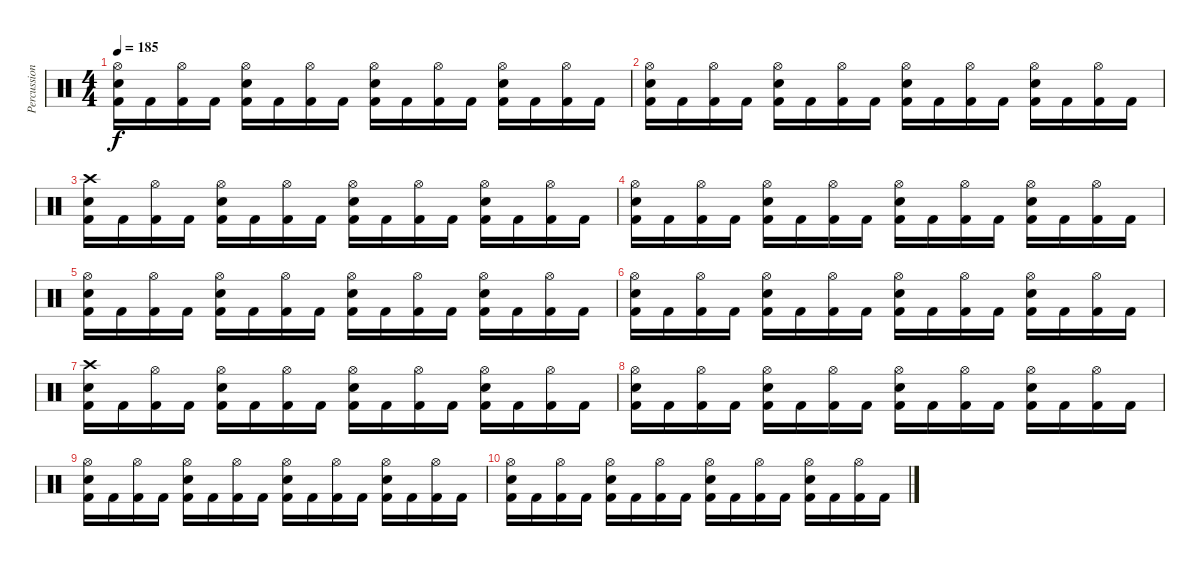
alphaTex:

\track ("Percussion" "Percussion") {instrument percussion}
\staff {score}
\articulation defaults
\ts (4 4)
\tempo 185
\clef neutral
\ks c
("Hi-Hat (open)" "Electric Snare (hit)" "Kick (hit) 2").16{dy f} "Kick (hit) 2".16 ("Hi-Hat (open)" "Kick (hit) 2").16 "Kick (hit) 2".16 ("Hi-Hat (open)" "Electric Snare (hit)" "Kick (hit) 2").16 "Kick (hit) 2".16 ("Hi-Hat (open)" "Kick (hit) 2").16 "Kick (hit) 2".16 ("Hi-Hat (open)" "Electric Snare (hit)" "Kick (hit) 2").16 "Kick (hit) 2".16 ("Hi-Hat (open)" "Kick (hit) 2").16 "Kick (hit) 2".16 ("Hi-Hat (open)" "Electric Snare (hit)" "Kick (hit) 2").16 "Kick (hit) 2".16 ("Hi-Hat (open)" "Kick (hit) 2").16 "Kick (hit) 2".16 |
("Hi-Hat (open)" "Electric Snare (hit)" "Kick (hit) 2").16 "Kick (hit) 2".16 ("Hi-Hat (open)" "Kick (hit) 2").16 "Kick (hit) 2".16 ("Hi-Hat (open)" "Electric Snare (hit)" "Kick (hit) 2").16 "Kick (hit) 2".16 ("Hi-Hat (open)" "Kick (hit) 2").16 "Kick (hit) 2".16 ("Hi-Hat (open)" "Electric Snare (hit)" "Kick (hit) 2").16 "Kick (hit) 2".16 ("Hi-Hat (open)" "Kick (hit) 2").16 "Kick (hit) 2".16 ("Hi-Hat (open)" "Electric Snare (hit)" "Kick (hit) 2").16 "Kick (hit) 2".16 ("Hi-Hat (open)" "Kick (hit) 2").16 "Kick (hit) 2".16 |
("Crash high (hit)" "Electric Snare (hit)" "Kick (hit) 2").16 "Kick (hit) 2".16 ("Hi-Hat (open)" "Kick (hit) 2").16 "Kick (hit) 2".16 ("Hi-Hat (open)" "Electric Snare (hit)" "Kick (hit) 2").16 "Kick (hit) 2".16 ("Hi-Hat (open)" "Kick (hit) 2").16 "Kick (hit) 2".16 ("Hi-Hat (open)" "Electric Snare (hit)" "Kick (hit) 2").16 "Kick (hit) 2".16 ("Hi-Hat (open)" "Kick (hit) 2").16 "Kick (hit) 2".16 ("Hi-Hat (open)" "Electric Snare (hit)" "Kick (hit) 2").16 "Kick (hit) 2".16 ("Hi-Hat (open)" "Kick (hit) 2").16 "Kick (hit) 2".16 |
("Hi-Hat (open)" "Electric Snare (hit)" "Kick (hit) 2").16 "Kick (hit) 2".16 ("Hi-Hat (open)" "Kick (hit) 2").16 "Kick (hit) 2".16 ("Hi-Hat (open)" "Electric Snare (hit)" "Kick (hit) 2").16 "Kick (hit) 2".16 ("Hi-Hat (open)" "Kick (hit) 2").16 "Kick (hit) 2".16 ("Hi-Hat (open)" "Electric Snare (hit)" "Kick (hit) 2").16 "Kick (hit) 2".16 ("Hi-Hat (open)" "Kick (hit) 2").16 "Kick (hit) 2".16 ("Hi-Hat (open)" "Electric Snare (hit)" "Kick (hit) 2").16 "Kick (hit) 2".16 ("Hi-Hat (open)" "Kick (hit) 2").16 "Kick (hit) 2".16 |
("Hi-Hat (open)" "Electric Snare (hit)" "Kick (hit) 2").16 "Kick (hit) 2".16 ("Hi-Hat (open)" "Kick (hit) 2").16 "Kick (hit) 2".16 ("Hi-Hat (open)" "Electric Snare (hit)" "Kick (hit) 2").16 "Kick (hit) 2".16 ("Hi-Hat (open)" "Kick (hit) 2").16 "Kick (hit) 2".16 ("Hi-Hat (open)" "Electric Snare (hit)" "Kick (hit) 2").16 "Kick (hit) 2".16 ("Hi-Hat (open)" "Kick (hit) 2").16 "Kick (hit) 2".16 ("Hi-Hat (open)" "Electric Snare (hit)" "Kick (hit) 2").16 "Kick (hit) 2".16 ("Hi-Hat (open)" "Kick (hit) 2").16 "Kick (hit) 2".16 |
("Hi-Hat (open)" "Electric Snare (hit)" "Kick (hit) 2").16 "Kick (hit) 2".16 ("Hi-Hat (open)" "Kick (hit) 2").16 "Kick (hit) 2".16 ("Hi-Hat (open)" "Electric Snare (hit)" "Kick (hit) 2").16 "Kick (hit) 2".16 ("Hi-Hat (open)" "Kick (hit) 2").16 "Kick (hit) 2".16 ("Hi-Hat (open)" "Electric Snare (hit)" "Kick (hit) 2").16 "Kick (hit) 2".16 ("Hi-Hat (open)" "Kick (hit) 2").16 "Kick (hit) 2".16 ("Hi-Hat (open)" "Electric Snare (hit)" "Kick (hit) 2").16 "Kick (hit) 2".16 ("Hi-Hat (open)" "Kick (hit) 2").16 "Kick (hit) 2".16 |
("Crash high (hit)" "Electric Snare (hit)" "Kick (hit) 2").16 "Kick (hit) 2".16 ("Hi-Hat (open)" "Kick (hit) 2").16 "Kick (hit) 2".16 ("Hi-Hat (open)" "Electric Snare (hit)" "Kick (hit) 2").16 "Kick (hit) 2".16 ("Hi-Hat (open)" "Kick (hit) 2").16 "Kick (hit) 2".16 ("Hi-Hat (open)" "Electric Snare (hit)" "Kick (hit) 2").16 "Kick (hit) 2".16 ("Hi-Hat (open)" "Kick (hit) 2").16 "Kick (hit) 2".16 ("Hi-Hat (open)" "Electric Snare (hit)" "Kick (hit) 2").16 "Kick (hit) 2".16 ("Hi-Hat (open)" "Kick (hit) 2").16 "Kick (hit) 2".16 |
("Hi-Hat (open)" "Electric Snare (hit)" "Kick (hit) 2").16 "Kick (hit) 2".16 ("Hi-Hat (open)" "Kick (hit) 2").16 "Kick (hit) 2".16 ("Hi-Hat (open)" "Electric Snare (hit)" "Kick (hit) 2").16 "Kick (hit) 2".16 ("Hi-Hat (open)" "Kick (hit) 2").16 "Kick (hit) 2".16 ("Hi-Hat (open)" "Electric Snare (hit)" "Kick (hit) 2").16 "Kick (hit) 2".16 ("Hi-Hat (open)" "Kick (hit) 2").16 "Kick (hit) 2".16 ("Hi-Hat (open)" "Electric Snare (hit)" "Kick (hit) 2").16 "Kick (hit) 2".16 ("Hi-Hat (open)" "Kick (hit) 2").16 "Kick (hit) 2".16 |
("Hi-Hat (open)" "Electric Snare (hit)" "Kick (hit) 2").16 "Kick (hit) 2".16 ("Hi-Hat (open)" "Kick (hit) 2").16 "Kick (hit) 2".16 ("Hi-Hat (open)" "Electric Snare (hit)" "Kick (hit) 2").16 "Kick (hit) 2".16 ("Hi-Hat (open)" "Kick (hit) 2").16 "Kick (hit) 2".16 ("Hi-Hat (open)" "Electric Snare (hit)" "Kick (hit) 2").16 "Kick (hit) 2".16 ("Hi-Hat (open)" "Kick (hit) 2").16 "Kick (hit) 2".16 ("Hi-Hat (open)" "Electric Snare (hit)" "Kick (hit) 2").16 "Kick (hit) 2".16 ("Hi-Hat (open)" "Kick (hit) 2").16 "Kick (hit) 2".16 |
("Hi-Hat (open)" "Electric Snare (hit)" "Kick (hit) 2").16 "Kick (hit) 2".16 ("Hi-Hat (open)" "Kick (hit) 2").16 "Kick (hit) 2".16 ("Hi-Hat (open)" "Electric Snare (hit)" "Kick (hit) 2").16 "Kick (hit) 2".16 ("Hi-Hat (open)" "Kick (hit) 2").16 "Kick (hit) 2".16 ("Hi-Hat (open)" "Electric Snare (hit)" "Kick (hit) 2").16 "Kick (hit) 2".16 ("Hi-Hat (open)" "Kick (hit) 2").16 "Kick (hit) 2".16 ("Hi-Hat (open)" "Electric Snare (hit)" "Kick (hit) 2").16 "Kick (hit) 2".16 ("Hi-Hat (open)" "Kick (hit) 2").16 "Kick (hit) 2".16
